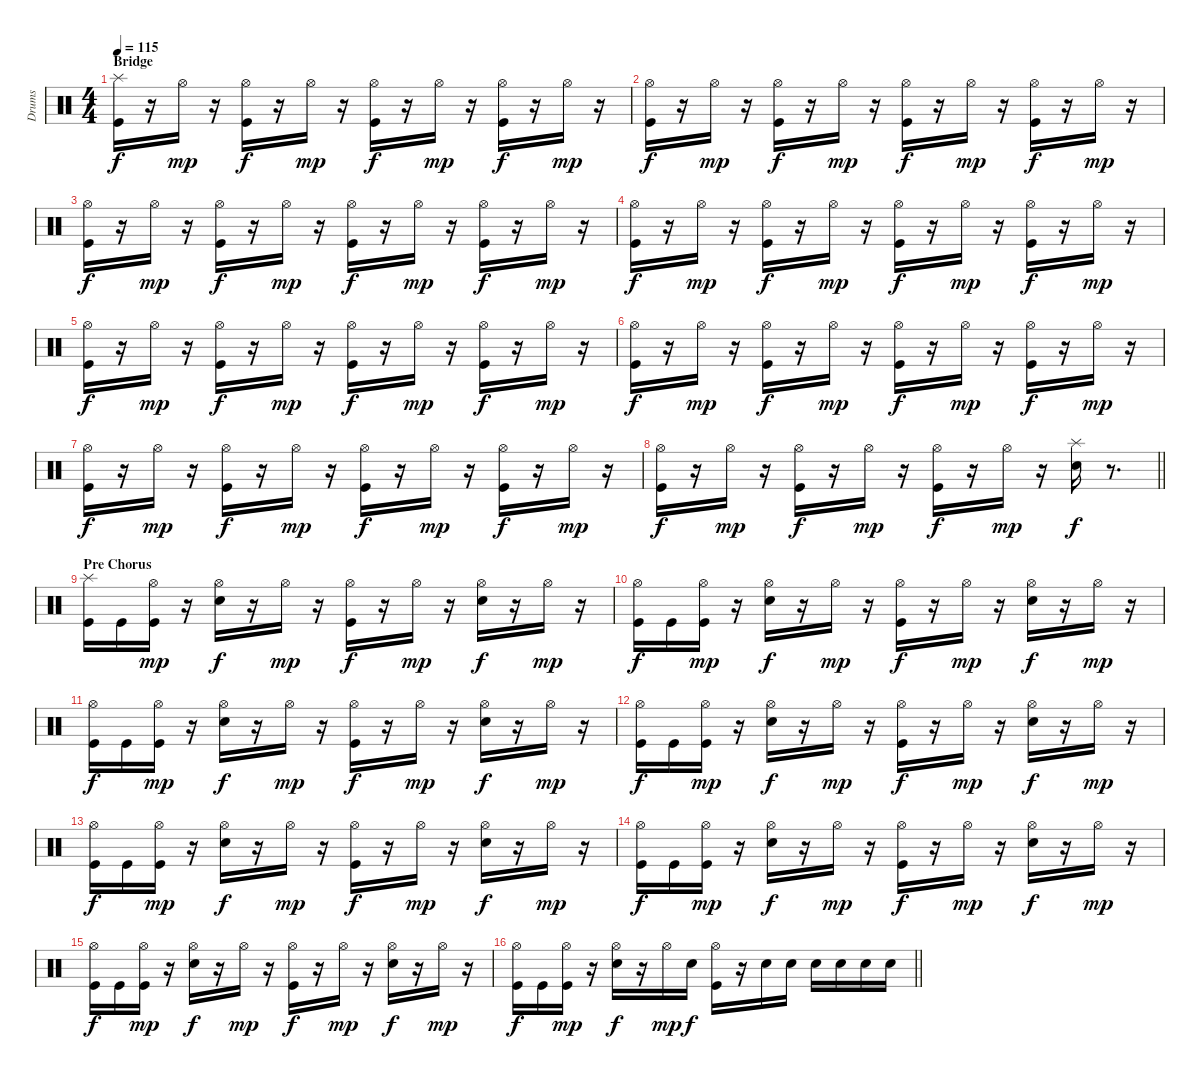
\track ("Drums" "Drums") {instrument percussion}
\staff {score}
\articulation defaults
\ts (4 4)
\section ("" "Bridge")
\tempo 115
\clef neutral
\ks c
("Kick (hit)" "Splash (hit)").16{dy f} r.16 "Hi-Hat (open)".16{dy mp} r.16 ("Hi-Hat (open)" "Kick (hit)").16{dy f} r.16 "Hi-Hat (open)".16{dy mp} r.16 ("Hi-Hat (open)" "Kick (hit)").16{dy f} r.16 "Hi-Hat (open)".16{dy mp} r.16 ("Hi-Hat (open)" "Kick (hit)").16{dy f} r.16 "Hi-Hat (open)".16{dy mp} r.16 |
("Hi-Hat (open)" "Kick (hit)").16{dy f} r.16 "Hi-Hat (open)".16{dy mp} r.16 ("Hi-Hat (open)" "Kick (hit)").16{dy f} r.16 "Hi-Hat (open)".16{dy mp} r.16 ("Hi-Hat (open)" "Kick (hit)").16{dy f} r.16 "Hi-Hat (open)".16{dy mp} r.16 ("Hi-Hat (open)" "Kick (hit)").16{dy f} r.16 "Hi-Hat (open)".16{dy mp} r.16 |
("Hi-Hat (open)" "Kick (hit)").16{dy f} r.16 "Hi-Hat (open)".16{dy mp} r.16 ("Hi-Hat (open)" "Kick (hit)").16{dy f} r.16 "Hi-Hat (open)".16{dy mp} r.16 ("Hi-Hat (open)" "Kick (hit)").16{dy f} r.16 "Hi-Hat (open)".16{dy mp} r.16 ("Hi-Hat (open)" "Kick (hit)").16{dy f} r.16 "Hi-Hat (open)".16{dy mp} r.16 |
("Hi-Hat (open)" "Kick (hit)").16{dy f} r.16 "Hi-Hat (open)".16{dy mp} r.16 ("Hi-Hat (open)" "Kick (hit)").16{dy f} r.16 "Hi-Hat (open)".16{dy mp} r.16 ("Hi-Hat (open)" "Kick (hit)").16{dy f} r.16 "Hi-Hat (open)".16{dy mp} r.16 ("Hi-Hat (open)" "Kick (hit)").16{dy f} r.16 "Hi-Hat (open)".16{dy mp} r.16 |
("Hi-Hat (open)" "Kick (hit)").16{dy f} r.16 "Hi-Hat (open)".16{dy mp} r.16 ("Hi-Hat (open)" "Kick (hit)").16{dy f} r.16 "Hi-Hat (open)".16{dy mp} r.16 ("Hi-Hat (open)" "Kick (hit)").16{dy f} r.16 "Hi-Hat (open)".16{dy mp} r.16 ("Hi-Hat (open)" "Kick (hit)").16{dy f} r.16 "Hi-Hat (open)".16{dy mp} r.16 |
("Hi-Hat (open)" "Kick (hit)").16{dy f} r.16 "Hi-Hat (open)".16{dy mp} r.16 ("Hi-Hat (open)" "Kick (hit)").16{dy f} r.16 "Hi-Hat (open)".16{dy mp} r.16 ("Hi-Hat (open)" "Kick (hit)").16{dy f} r.16 "Hi-Hat (open)".16{dy mp} r.16 ("Hi-Hat (open)" "Kick (hit)").16{dy f} r.16 "Hi-Hat (open)".16{dy mp} r.16 |
("Hi-Hat (open)" "Kick (hit)").16{dy f} r.16 "Hi-Hat (open)".16{dy mp} r.16 ("Hi-Hat (open)" "Kick (hit)").16{dy f} r.16 "Hi-Hat (open)".16{dy mp} r.16 ("Hi-Hat (open)" "Kick (hit)").16{dy f} r.16 "Hi-Hat (open)".16{dy mp} r.16 ("Hi-Hat (open)" "Kick (hit)").16{dy f} r.16 "Hi-Hat (open)".16{dy mp} r.16 |
\barLineRight lightlight
("Hi-Hat (open)" "Kick (hit)").16{dy f} r.16 "Hi-Hat (open)".16{dy mp} r.16 ("Hi-Hat (open)" "Kick (hit)").16{dy f} r.16 "Hi-Hat (open)".16{dy mp} r.16 ("Hi-Hat (open)" "Kick (hit)").16{dy f} r.16 "Hi-Hat (open)".16{dy mp} r.16 ("Splash (hit)" "Electric Snare (hit)").16{dy f} r.8{d} |
\section ("" "Pre Chorus")
("Splash (hit)" "Kick (hit)").16 "Kick (hit)".16 ("Kick (hit)" "Hi-Hat (open)").16{dy mp} r.16 ("Hi-Hat (open)" "Electric Snare (hit)").16{dy f} r.16 "Hi-Hat (open)".16{dy mp} r.16 ("Hi-Hat (open)" "Kick (hit)").16{dy f} r.16 "Hi-Hat (open)".16{dy mp} r.16 ("Hi-Hat (open)" "Electric Snare (hit)").16{dy f} r.16 "Hi-Hat (open)".16{dy mp} r.16 |
("Hi-Hat (open)" "Kick (hit)").16{dy f} "Kick (hit)".16 ("Kick (hit)" "Hi-Hat (open)").16{dy mp} r.16 ("Hi-Hat (open)" "Electric Snare (hit)").16{dy f} r.16 "Hi-Hat (open)".16{dy mp} r.16 ("Hi-Hat (open)" "Kick (hit)").16{dy f} r.16 "Hi-Hat (open)".16{dy mp} r.16 ("Hi-Hat (open)" "Electric Snare (hit)").16{dy f} r.16 "Hi-Hat (open)".16{dy mp} r.16 |
("Hi-Hat (open)" "Kick (hit)").16{dy f} "Kick (hit)".16 ("Kick (hit)" "Hi-Hat (open)").16{dy mp} r.16 ("Hi-Hat (open)" "Electric Snare (hit)").16{dy f} r.16 "Hi-Hat (open)".16{dy mp} r.16 ("Hi-Hat (open)" "Kick (hit)").16{dy f} r.16 "Hi-Hat (open)".16{dy mp} r.16 ("Hi-Hat (open)" "Electric Snare (hit)").16{dy f} r.16 "Hi-Hat (open)".16{dy mp} r.16 |
("Hi-Hat (open)" "Kick (hit)").16{dy f} "Kick (hit)".16 ("Kick (hit)" "Hi-Hat (open)").16{dy mp} r.16 ("Hi-Hat (open)" "Electric Snare (hit)").16{dy f} r.16 "Hi-Hat (open)".16{dy mp} r.16 ("Hi-Hat (open)" "Kick (hit)").16{dy f} r.16 "Hi-Hat (open)".16{dy mp} r.16 ("Hi-Hat (open)" "Electric Snare (hit)").16{dy f} r.16 "Hi-Hat (open)".16{dy mp} r.16 |
("Hi-Hat (open)" "Kick (hit)").16{dy f} "Kick (hit)".16 ("Kick (hit)" "Hi-Hat (open)").16{dy mp} r.16 ("Hi-Hat (open)" "Electric Snare (hit)").16{dy f} r.16 "Hi-Hat (open)".16{dy mp} r.16 ("Hi-Hat (open)" "Kick (hit)").16{dy f} r.16 "Hi-Hat (open)".16{dy mp} r.16 ("Hi-Hat (open)" "Electric Snare (hit)").16{dy f} r.16 "Hi-Hat (open)".16{dy mp} r.16 |
("Hi-Hat (open)" "Kick (hit)").16{dy f} "Kick (hit)".16 ("Kick (hit)" "Hi-Hat (open)").16{dy mp} r.16 ("Hi-Hat (open)" "Electric Snare (hit)").16{dy f} r.16 "Hi-Hat (open)".16{dy mp} r.16 ("Hi-Hat (open)" "Kick (hit)").16{dy f} r.16 "Hi-Hat (open)".16{dy mp} r.16 ("Hi-Hat (open)" "Electric Snare (hit)").16{dy f} r.16 "Hi-Hat (open)".16{dy mp} r.16 |
("Hi-Hat (open)" "Kick (hit)").16{dy f} "Kick (hit)".16 ("Kick (hit)" "Hi-Hat (open)").16{dy mp} r.16 ("Hi-Hat (open)" "Electric Snare (hit)").16{dy f} r.16 "Hi-Hat (open)".16{dy mp} r.16 ("Hi-Hat (open)" "Kick (hit)").16{dy f} r.16 "Hi-Hat (open)".16{dy mp} r.16 ("Hi-Hat (open)" "Electric Snare (hit)").16{dy f} r.16 "Hi-Hat (open)".16{dy mp} r.16 |
\barLineRight lightlight
("Hi-Hat (open)" "Kick (hit)").16{dy f} "Kick (hit)".16 ("Kick (hit)" "Hi-Hat (open)").16{dy mp} r.16 ("Hi-Hat (open)" "Electric Snare (hit)").16{dy f} r.16 "Hi-Hat (open)".16{dy mp} "Electric Snare (hit)".16{dy f} ("Hi-Hat (open)" "Kick (hit)").16 r.16 "Electric Snare (hit)".16 "Electric Snare (hit)".16 "Electric Snare (hit)".16 "Electric Snare (hit)".16 "Electric Snare (hit)".16 "Electric Snare (hit)".16
